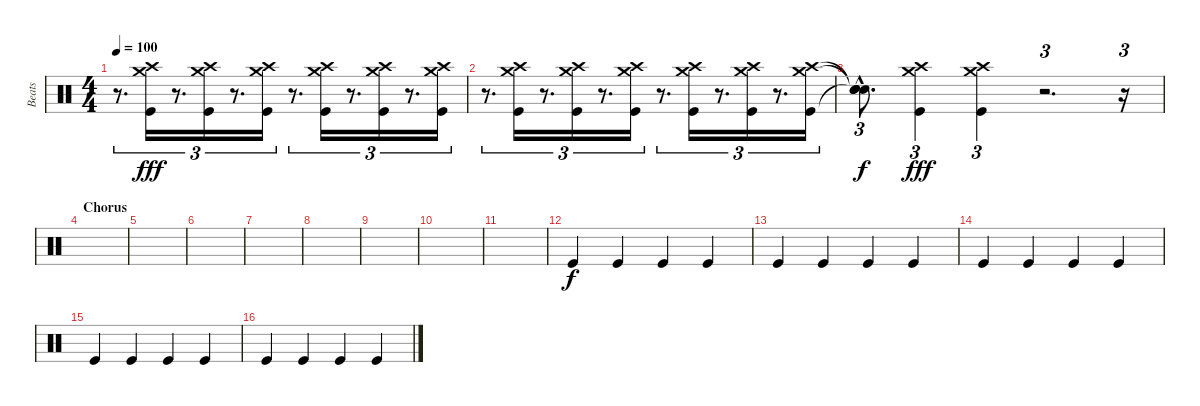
\track ("Beats" "Beats") {instrument percussion}
\staff {score}
\articulation defaults
\ts (4 4)
\tempo 100
\clef neutral
\ks c
r.8{d tu (3 2) dy fff} ("Crash medium (hit)" "Crash high (hit)" "Kick (hit)").16{tu (3 2)} r.8{d tu (3 2)} ("Crash high (hit)" "Crash medium (hit)" "Kick (hit)").16{tu (3 2)} r.8{d tu (3 2)} ("Crash high (hit)" "Crash medium (hit)" "Kick (hit)").16{tu (3 2)} r.8{d tu (3 2)} ("Crash high (hit)" "Crash medium (hit)" "Kick (hit)").16{tu (3 2)} r.8{d tu (3 2)} ("Crash high (hit)" "Crash medium (hit)" "Kick (hit)").16{tu (3 2)} r.8{d tu (3 2)} ("Crash high (hit)" "Crash medium (hit)" "Kick (hit)").16{tu (3 2)} |
r.8{d tu (3 2)} ("Crash medium (hit)" "Crash high (hit)" "Kick (hit)").16{tu (3 2)} r.8{d tu (3 2)} ("Crash high (hit)" "Crash medium (hit)" "Kick (hit)").16{tu (3 2)} r.8{d tu (3 2)} ("Crash high (hit)" "Crash medium (hit)" "Kick (hit)").16{tu (3 2)} r.8{d tu (3 2)} ("Crash high (hit)" "Crash medium (hit)" "Kick (hit)").16{tu (3 2)} r.8{d tu (3 2)} ("Crash high (hit)" "Crash medium (hit)" "Kick (hit)").16{tu (3 2)} r.8{d tu (3 2)} ("Crash high (hit)" "Crash medium (hit)" "Kick (hit)").16{tu (3 2)} |
("Snare (hit)"{hac t} "Snare (hit)"{hac t} "Snare (hit)"{hac t}).8{d tu (3 2) dy f} ("Crash medium (hit)" "Crash high (hit)" "Kick (hit)").4{tu (3 2) dy fff} ("Crash medium (hit)" "Crash high (hit)" "Kick (hit)").4{tu (3 2)} r.2{d tu (3 2)} r.16{tu (3 2)} |
\section ("" "Chorus")
|
|
|
|
|
|
|
|
"Kick (hit)".4{dy f} "Kick (hit)".4 "Kick (hit)".4 "Kick (hit)".4 |
"Kick (hit)".4 "Kick (hit)".4 "Kick (hit)".4 "Kick (hit)".4 |
"Kick (hit)".4 "Kick (hit)".4 "Kick (hit)".4 "Kick (hit)".4 |
"Kick (hit)".4 "Kick (hit)".4 "Kick (hit)".4 "Kick (hit)".4 |
"Kick (hit)".4 "Kick (hit)".4 "Kick (hit)".4 "Kick (hit)".4
